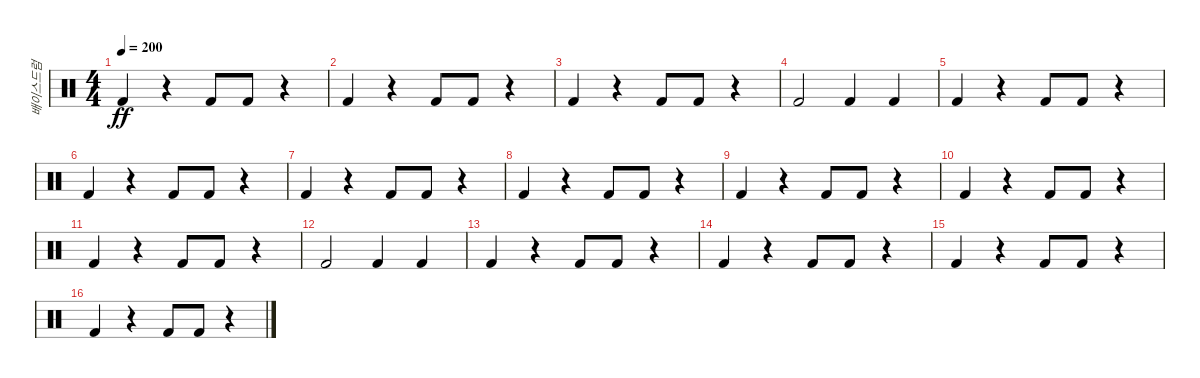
\track ("배이스드럼" "배이스드럼") {instrument percussion}
\staff {score}
\articulation defaults
\ts (4 4)
\tempo 200
\clef neutral
\ks c "Kick (hit) 2".4{dy ff}
r.4 "Kick (hit) 2".8 "Kick (hit) 2".8 r.4 |
"Kick (hit) 2".4 r.4 "Kick (hit) 2".8 "Kick (hit) 2".8 r.4 |
"Kick (hit) 2".4 r.4 "Kick (hit) 2".8 "Kick (hit) 2".8 r.4 |
"Kick (hit) 2".2 "Kick (hit) 2".4 "Kick (hit) 2".4 |
"Kick (hit) 2".4 r.4 "Kick (hit) 2".8 "Kick (hit) 2".8 r.4 |
"Kick (hit) 2".4 r.4 "Kick (hit) 2".8 "Kick (hit) 2".8 r.4 |
"Kick (hit) 2".4 r.4 "Kick (hit) 2".8 "Kick (hit) 2".8 r.4 |
"Kick (hit) 2".4 r.4 "Kick (hit) 2".8 "Kick (hit) 2".8 r.4 |
"Kick (hit) 2".4 r.4 "Kick (hit) 2".8 "Kick (hit) 2".8 r.4 |
"Kick (hit) 2".4 r.4 "Kick (hit) 2".8 "Kick (hit) 2".8 r.4 |
"Kick (hit) 2".4 r.4 "Kick (hit) 2".8 "Kick (hit) 2".8 r.4 |
"Kick (hit) 2".2 "Kick (hit) 2".4 "Kick (hit) 2".4 |
"Kick (hit) 2".4 r.4 "Kick (hit) 2".8 "Kick (hit) 2".8 r.4 |
"Kick (hit) 2".4 r.4 "Kick (hit) 2".8 "Kick (hit) 2".8 r.4 |
"Kick (hit) 2".4 r.4 "Kick (hit) 2".8 "Kick (hit) 2".8 r.4 |
"Kick (hit) 2".4 r.4 "Kick (hit) 2".8 "Kick (hit) 2".8 r.4
